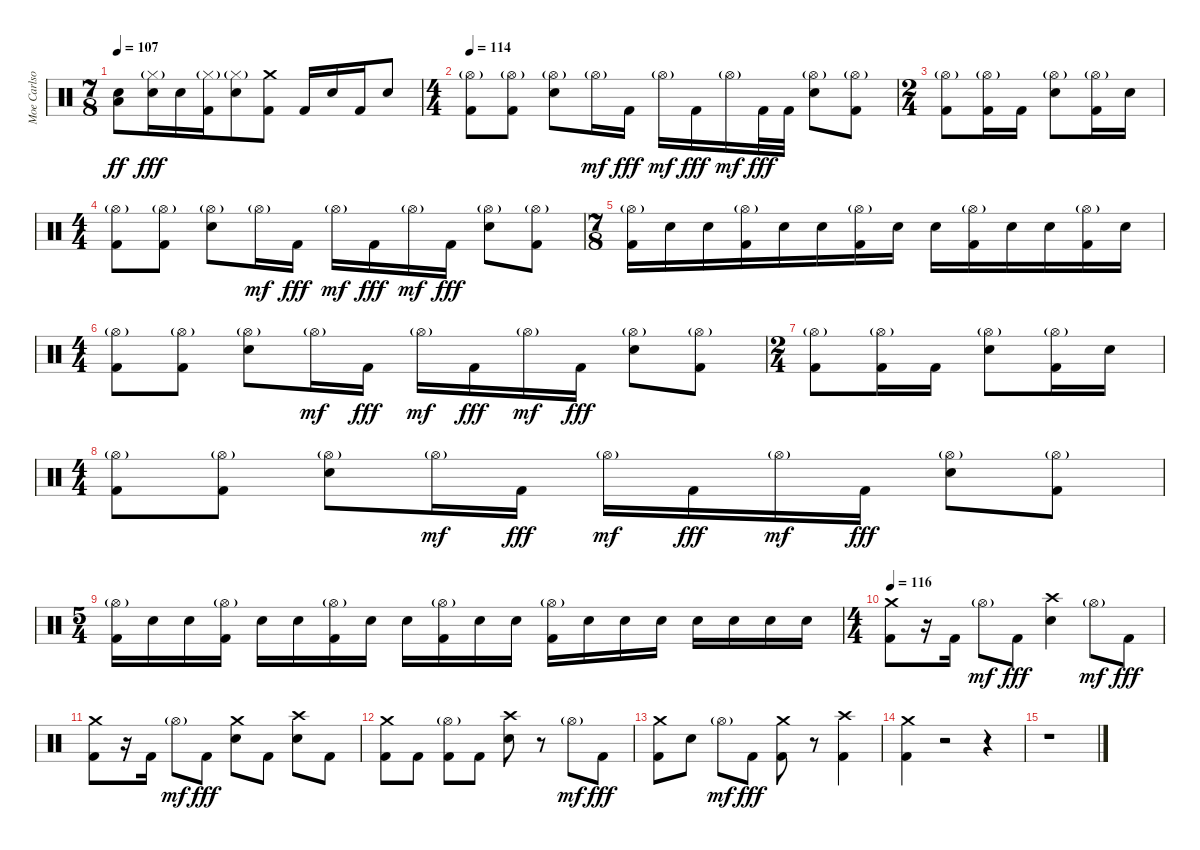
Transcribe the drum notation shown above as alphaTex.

\track ("Moe Carlson" "Moe Carlso") {instrument percussion}
\staff {score}
\articulation defaults
\ts (7 8)
\tempo 107
\clef neutral
\ks c
("Electric Snare (hit)" "Low Tom (hit)").8{dy ff} ("Hi-Hat (closed)"{g} "Electric Snare (hit)").16{dy fff} "Electric Snare (hit)".16 ("Hi-Hat (closed)"{g} "Kick (hit) 2").16 ("Hi-Hat (closed)"{g} "Electric Snare (hit)").8 ("Crash medium (hit)" "Kick (hit) 2").8 "Kick (hit) 2".16 "Electric Snare (hit)".16 "Kick (hit) 2".16 "Electric Snare (hit)".8 |
\ts (4 4)
\tempo 114
("Hi-Hat (open)"{g} "Kick (hit) 2").8 ("Hi-Hat (open)"{g} "Kick (hit) 2").8 ("Hi-Hat (open)"{g} "Electric Snare (hit)").8 "Hi-Hat (open)"{g}.16{dy mf} "Kick (hit) 2".16{dy fff} "Hi-Hat (open)"{g}.16{dy mf} "Kick (hit) 2".16{dy fff} "Hi-Hat (open)"{g}.16{dy mf} "Kick (hit) 2".32{dy fff} "Kick (hit) 2".32 ("Hi-Hat (open)"{g} "Electric Snare (hit)").8 ("Hi-Hat (open)"{g} "Kick (hit) 2").8 |
\ts (2 4)
("Hi-Hat (open)"{g} "Kick (hit) 2").8 ("Hi-Hat (open)"{g} "Kick (hit) 2").16 "Kick (hit) 2".16 ("Hi-Hat (open)"{g} "Electric Snare (hit)").8 ("Hi-Hat (open)"{g} "Kick (hit) 2").16 "Electric Snare (hit)".16 |
\ts (4 4)
("Hi-Hat (open)"{g} "Kick (hit) 2").8 ("Hi-Hat (open)"{g} "Kick (hit) 2").8 ("Hi-Hat (open)"{g} "Electric Snare (hit)").8 "Hi-Hat (open)"{g}.16{dy mf} "Kick (hit) 2".16{dy fff} "Hi-Hat (open)"{g}.16{dy mf} "Kick (hit) 2".16{dy fff} "Hi-Hat (open)"{g}.16{dy mf} "Kick (hit) 2".16{dy fff} ("Hi-Hat (open)"{g} "Electric Snare (hit)").8 ("Hi-Hat (open)"{g} "Kick (hit) 2").8 |
\ts (7 8)
("Hi-Hat (open)"{g} "Kick (hit) 2").16 "Electric Snare (hit)".16 "Electric Snare (hit)".16 ("Hi-Hat (open)"{g} "Kick (hit) 2").16 "Electric Snare (hit)".16 "Electric Snare (hit)".16 ("Hi-Hat (open)"{g} "Kick (hit) 2").16 "Electric Snare (hit)".16 "Electric Snare (hit)".16 ("Hi-Hat (open)"{g} "Kick (hit) 2").16 "Electric Snare (hit)".16 "Electric Snare (hit)".16 ("Hi-Hat (open)"{g} "Kick (hit) 2").16 "Electric Snare (hit)".16 |
\ts (4 4)
("Hi-Hat (open)"{g} "Kick (hit) 2").8 ("Hi-Hat (open)"{g} "Kick (hit) 2").8 ("Hi-Hat (open)"{g} "Electric Snare (hit)").8 "Hi-Hat (open)"{g}.16{dy mf} "Kick (hit) 2".16{dy fff} "Hi-Hat (open)"{g}.16{dy mf} "Kick (hit) 2".16{dy fff} "Hi-Hat (open)"{g}.16{dy mf} "Kick (hit) 2".16{dy fff} ("Hi-Hat (open)"{g} "Electric Snare (hit)").8 ("Hi-Hat (open)"{g} "Kick (hit) 2").8 |
\ts (2 4)
("Hi-Hat (open)"{g} "Kick (hit) 2").8 ("Hi-Hat (open)"{g} "Kick (hit) 2").16 "Kick (hit) 2".16 ("Hi-Hat (open)"{g} "Electric Snare (hit)").8 ("Hi-Hat (open)"{g} "Kick (hit) 2").16 "Electric Snare (hit)".16 |
\ts (4 4)
("Hi-Hat (open)"{g} "Kick (hit) 2").8 ("Hi-Hat (open)"{g} "Kick (hit) 2").8 ("Hi-Hat (open)"{g} "Electric Snare (hit)").8 "Hi-Hat (open)"{g}.16{dy mf} "Kick (hit) 2".16{dy fff} "Hi-Hat (open)"{g}.16{dy mf} "Kick (hit) 2".16{dy fff} "Hi-Hat (open)"{g}.16{dy mf} "Kick (hit) 2".16{dy fff} ("Hi-Hat (open)"{g} "Electric Snare (hit)").8 ("Hi-Hat (open)"{g} "Kick (hit) 2").8 |
\ts (5 4)
("Hi-Hat (open)"{g} "Kick (hit) 2").16 "Electric Snare (hit)".16 "Electric Snare (hit)".16 ("Hi-Hat (open)"{g} "Kick (hit) 2").16 "Electric Snare (hit)".16 "Electric Snare (hit)".16 ("Hi-Hat (open)"{g} "Kick (hit) 2").16 "Electric Snare (hit)".16 "Electric Snare (hit)".16 ("Hi-Hat (open)"{g} "Kick (hit) 2").16 "Electric Snare (hit)".16 "Electric Snare (hit)".16 ("Hi-Hat (open)"{g} "Kick (hit) 2").16 "Electric Snare (hit)".16 "Electric Snare (hit)".16 "Electric Snare (hit)".16 "Electric Snare (hit)".16 "Electric Snare (hit)".16 "Electric Snare (hit)".16 "Electric Snare (hit)".16 |
\ts (4 4)
\tempo 116
("Crash medium (hit)" "Kick (hit) 2").8 r.16 "Kick (hit) 2".16 "Hi-Hat (open)"{g}.8{dy mf} "Kick (hit) 2".8{dy fff} ("Crash high (hit)" "Electric Snare (hit)").4 "Hi-Hat (open)"{g}.8{dy mf} "Kick (hit) 2".8{dy fff} |
("Crash medium (hit)" "Kick (hit) 2").8 r.16 "Kick (hit) 2".16 "Hi-Hat (open)"{g}.8{dy mf} "Kick (hit) 2".8{dy fff} ("Crash medium (hit)" "Electric Snare (hit)").8 "Kick (hit) 2".8 ("Crash high (hit)" "Electric Snare (hit)").8 "Kick (hit) 2".8 |
("Crash medium (hit)" "Kick (hit) 2").8 "Kick (hit) 2".8 ("Hi-Hat (open)"{g} "Kick (hit) 2").8 "Kick (hit) 2".8 ("Crash high (hit)" "Electric Snare (hit)").8 r.8 "Hi-Hat (open)"{g}.8{dy mf} "Kick (hit) 2".8{dy fff} |
("Crash medium (hit)" "Kick (hit) 2").8 "Electric Snare (hit)".8 "Hi-Hat (open)"{g}.8{dy mf} "Kick (hit) 2".8{dy fff} ("Crash medium (hit)" "Kick (hit) 2").8 r.8 ("Crash high (hit)" "Kick (hit) 2").4 |
("Crash medium (hit)" "Kick (hit) 2").4 r.2 r.4 |
r.1
